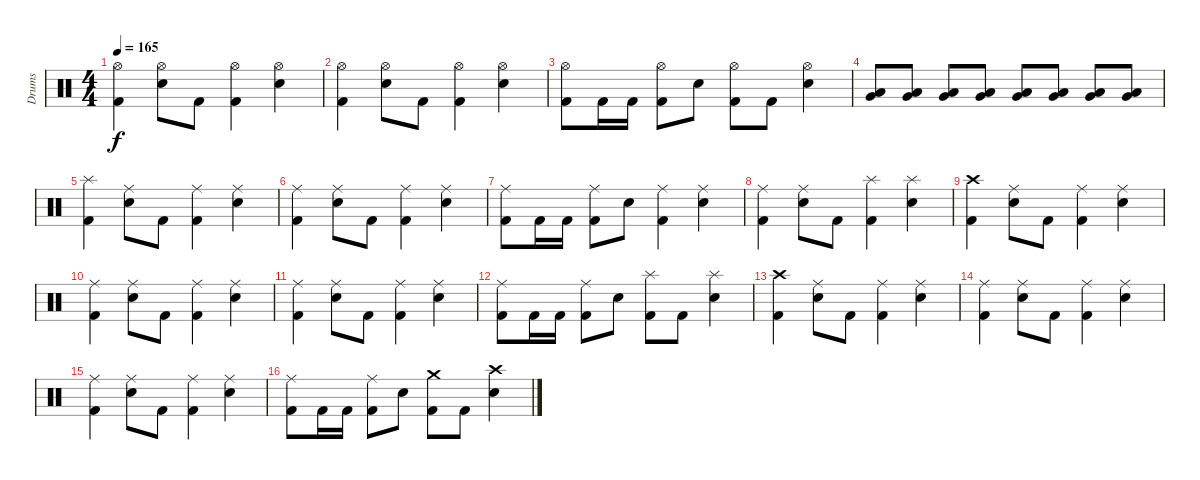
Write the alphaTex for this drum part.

\track ("Drums" "Drums") {instrument percussion}
\staff {score}
\articulation defaults
\ts (4 4)
\tempo 165
\clef neutral
\ks c
("Hi-Hat (open)" "Kick (hit) 2").4{dy f} ("Hi-Hat (open)" "Snare (hit) 2").8 "Kick (hit) 2".8 ("Hi-Hat (open)" "Kick (hit) 2").4 ("Hi-Hat (open)" "Snare (hit) 2").4 |
("Hi-Hat (open)" "Kick (hit) 2").4 ("Hi-Hat (open)" "Snare (hit) 2").8 "Kick (hit) 2".8 ("Hi-Hat (open)" "Kick (hit) 2").4 ("Hi-Hat (open)" "Snare (hit) 2").4 |
("Hi-Hat (open)" "Kick (hit) 2").8 "Kick (hit) 2".16 "Kick (hit) 2".16 ("Hi-Hat (open)" "Kick (hit) 2").8 "Snare (hit) 2".8 ("Hi-Hat (open)" "Kick (hit) 2").8 "Kick (hit) 2".8 ("Hi-Hat (open)" "Snare (hit) 2").4 |
("Low Tom (hit)" "Very Low Tom (hit)").8 ("Low Tom (hit)" "Very Low Tom (hit)").8 ("Very Low Tom (hit)" "Low Floor Tom (hit)").8 ("Very Low Tom (hit)" "Low Floor Tom (hit)").8 ("Low Tom (hit)" "Very Low Tom (hit)").8 ("Low Tom (hit)" "Very Low Tom (hit)").8 ("Very Low Tom (hit)" "Low Floor Tom (hit)").8 ("Very Low Tom (hit)" "Low Floor Tom (hit)").8 |
("Splash (hit)" "Kick (hit) 2").4 ("Ride (middle)" "Snare (hit) 2").8 "Kick (hit) 2".8 ("Ride (middle)" "Kick (hit) 2").4 ("Ride (middle)" "Snare (hit) 2").4 |
("Ride (middle)" "Kick (hit) 2").4 ("Ride (middle)" "Snare (hit) 2").8 "Kick (hit) 2".8 ("Ride (middle)" "Kick (hit) 2").4 ("Ride (middle)" "Snare (hit) 2").4 |
("Ride (middle)" "Kick (hit) 2").8 "Kick (hit) 2".16 "Kick (hit) 2".16 ("Ride (middle)" "Kick (hit) 2").8 "Snare (hit) 2".8 ("Ride (middle)" "Kick (hit) 2").4 ("Ride (middle)" "Snare (hit) 2").4 |
("Ride (middle)" "Kick (hit) 2").4 ("Ride (middle)" "Snare (hit) 2").8 "Kick (hit) 2".8 ("Splash (hit)" "Kick (hit) 2").4 ("Splash (hit)" "Snare (hit) 2").4 |
("Crash high (hit)" "Kick (hit) 2").4 ("Ride (middle)" "Snare (hit) 2").8 "Kick (hit) 2".8 ("Ride (middle)" "Kick (hit) 2").4 ("Ride (middle)" "Snare (hit) 2").4 |
("Ride (middle)" "Kick (hit) 2").4 ("Ride (middle)" "Snare (hit) 2").8 "Kick (hit) 2".8 ("Ride (middle)" "Kick (hit) 2").4 ("Ride (middle)" "Snare (hit) 2").4 |
("Ride (middle)" "Kick (hit) 2").4 ("Ride (middle)" "Snare (hit) 2").8 "Kick (hit) 2".8 ("Ride (middle)" "Kick (hit) 2").4 ("Ride (middle)" "Snare (hit) 2").4 |
("Ride (middle)" "Kick (hit) 2").8 "Kick (hit) 2".16 "Kick (hit) 2".16 ("Ride (middle)" "Kick (hit) 2").8 "Snare (hit) 2".8 ("Splash (hit)" "Kick (hit) 2").8 "Kick (hit) 2".8 ("Splash (hit)" "Snare (hit) 2").4 |
("Crash high (hit)" "Kick (hit) 2").4 ("Ride (middle)" "Snare (hit) 2").8 "Kick (hit) 2".8 ("Ride (middle)" "Kick (hit) 2").4 ("Ride (middle)" "Snare (hit) 2").4 |
("Ride (middle)" "Kick (hit) 2").4 ("Ride (middle)" "Snare (hit) 2").8 "Kick (hit) 2".8 ("Ride (middle)" "Kick (hit) 2").4 ("Ride (middle)" "Snare (hit) 2").4 |
("Ride (middle)" "Kick (hit) 2").4 ("Ride (middle)" "Snare (hit) 2").8 "Kick (hit) 2".8 ("Ride (middle)" "Kick (hit) 2").4 ("Ride (middle)" "Snare (hit) 2").4 |
("Ride (middle)" "Kick (hit) 2").8 "Kick (hit) 2".16 "Kick (hit) 2".16 ("Ride (middle)" "Kick (hit) 2").8 "Snare (hit) 2".8 ("Crash medium (hit)" "Kick (hit) 2").8 "Kick (hit) 2".8 ("Crash high (hit)" "Snare (hit) 2").4
